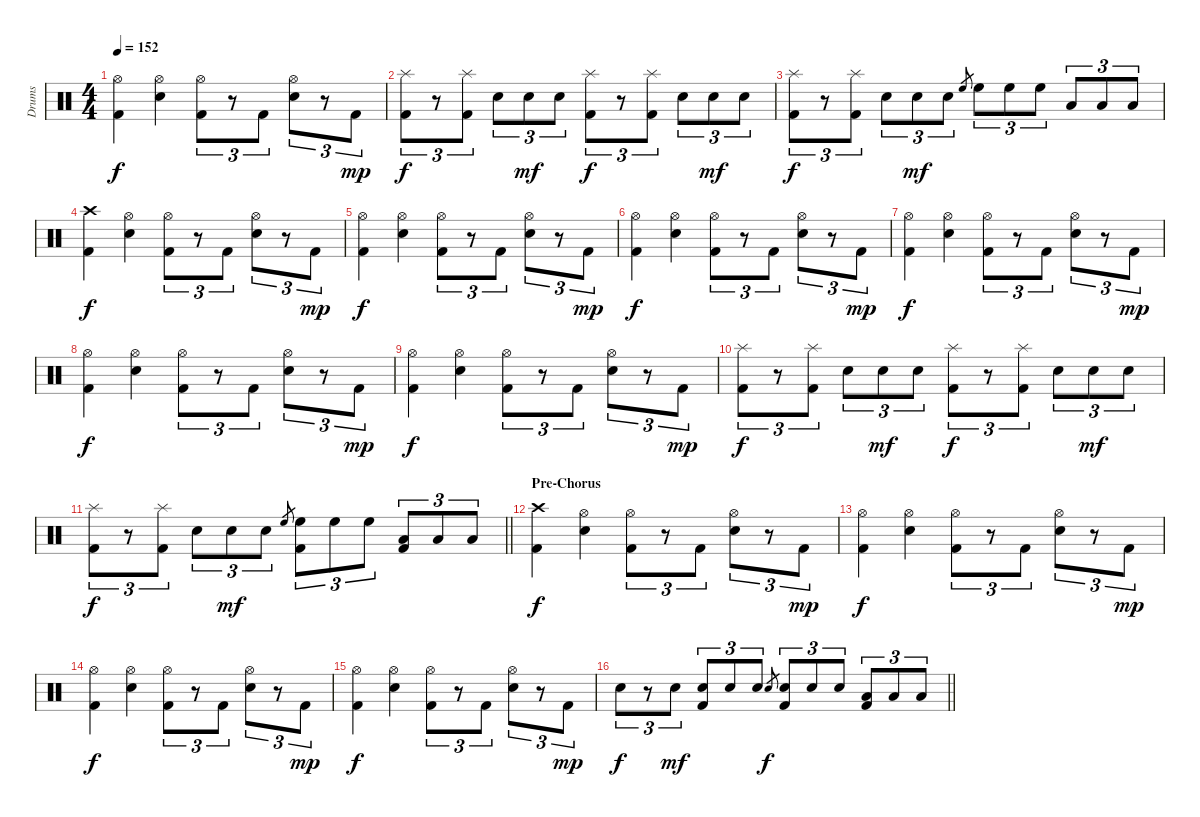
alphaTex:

\track ("Drums" "Drums") {instrument percussion}
\staff {score}
\articulation defaults
\ts (4 4)
\tempo 152
\clef neutral
\ks c
("Hi-Hat (open)" "Kick (hit) 2").4{dy f} ("Hi-Hat (open)" "Snare (hit) 2").4 ("Hi-Hat (open)" "Kick (hit) 2").8{tu (3 2)} r.8{tu (3 2)} "Kick (hit) 2".8{tu (3 2)} ("Hi-Hat (open)" "Snare (hit) 2").8{tu (3 2)} r.8{tu (3 2)} "Kick (hit) 2".8{tu (3 2) dy mp} |
("Splash (hit)" "Kick (hit) 2").8{tu (3 2) dy f} r.8{tu (3 2)} ("Splash (hit)" "Kick (hit) 2").8{tu (3 2)} "Snare (hit) 2".8{tu (3 2)} "Snare (hit) 2".8{tu (3 2) dy mf} "Snare (hit) 2".8{tu (3 2)} ("Splash (hit)" "Kick (hit) 2").8{tu (3 2) dy f} r.8{tu (3 2)} ("Splash (hit)" "Kick (hit) 2").8{tu (3 2)} "Snare (hit) 2".8{tu (3 2)} "Snare (hit) 2".8{tu (3 2) dy mf} "Snare (hit) 2".8{tu (3 2)} |
("Splash (hit)" "Kick (hit) 2").8{tu (3 2) dy f} r.8{tu (3 2)} ("Splash (hit)" "Kick (hit) 2").8{tu (3 2)} "Snare (hit) 2".8{tu (3 2)} "Snare (hit) 2".8{tu (3 2) dy mf} "Snare (hit) 2".8{tu (3 2)} "High Floor Tom (hit)".8{gr} "High Floor Tom (hit)".8{tu (3 2)} "High Floor Tom (hit)".8{tu (3 2)} "High Floor Tom (hit)".8{tu (3 2)} "Low Tom (hit)".8{tu (3 2)} "Low Tom (hit)".8{tu (3 2)} "Low Tom (hit)".8{tu (3 2)} |
("Crash high (hit)" "Kick (hit) 2").4{dy f} ("Hi-Hat (open)" "Snare (hit) 2").4 ("Hi-Hat (open)" "Kick (hit) 2").8{tu (3 2)} r.8{tu (3 2)} "Kick (hit) 2".8{tu (3 2)} ("Hi-Hat (open)" "Snare (hit) 2").8{tu (3 2)} r.8{tu (3 2)} "Kick (hit) 2".8{tu (3 2) dy mp} |
("Hi-Hat (open)" "Kick (hit) 2").4{dy f} ("Hi-Hat (open)" "Snare (hit) 2").4 ("Hi-Hat (open)" "Kick (hit) 2").8{tu (3 2)} r.8{tu (3 2)} "Kick (hit) 2".8{tu (3 2)} ("Hi-Hat (open)" "Snare (hit) 2").8{tu (3 2)} r.8{tu (3 2)} "Kick (hit) 2".8{tu (3 2) dy mp} |
("Hi-Hat (open)" "Kick (hit) 2").4{dy f} ("Hi-Hat (open)" "Snare (hit) 2").4 ("Hi-Hat (open)" "Kick (hit) 2").8{tu (3 2)} r.8{tu (3 2)} "Kick (hit) 2".8{tu (3 2)} ("Hi-Hat (open)" "Snare (hit) 2").8{tu (3 2)} r.8{tu (3 2)} "Kick (hit) 2".8{tu (3 2) dy mp} |
("Hi-Hat (open)" "Kick (hit) 2").4{dy f} ("Hi-Hat (open)" "Snare (hit) 2").4 ("Hi-Hat (open)" "Kick (hit) 2").8{tu (3 2)} r.8{tu (3 2)} "Kick (hit) 2".8{tu (3 2)} ("Hi-Hat (open)" "Snare (hit) 2").8{tu (3 2)} r.8{tu (3 2)} "Kick (hit) 2".8{tu (3 2) dy mp} |
("Hi-Hat (open)" "Kick (hit) 2").4{dy f} ("Hi-Hat (open)" "Snare (hit) 2").4 ("Hi-Hat (open)" "Kick (hit) 2").8{tu (3 2)} r.8{tu (3 2)} "Kick (hit) 2".8{tu (3 2)} ("Hi-Hat (open)" "Snare (hit) 2").8{tu (3 2)} r.8{tu (3 2)} "Kick (hit) 2".8{tu (3 2) dy mp} |
("Hi-Hat (open)" "Kick (hit) 2").4{dy f} ("Hi-Hat (open)" "Snare (hit) 2").4 ("Hi-Hat (open)" "Kick (hit) 2").8{tu (3 2)} r.8{tu (3 2)} "Kick (hit) 2".8{tu (3 2)} ("Hi-Hat (open)" "Snare (hit) 2").8{tu (3 2)} r.8{tu (3 2)} "Kick (hit) 2".8{tu (3 2) dy mp} |
("Splash (hit)" "Kick (hit) 2").8{tu (3 2) dy f} r.8{tu (3 2)} ("Splash (hit)" "Kick (hit) 2").8{tu (3 2)} "Snare (hit) 2".8{tu (3 2)} "Snare (hit) 2".8{tu (3 2) dy mf} "Snare (hit) 2".8{tu (3 2)} ("Splash (hit)" "Kick (hit) 2").8{tu (3 2) dy f} r.8{tu (3 2)} ("Splash (hit)" "Kick (hit) 2").8{tu (3 2)} "Snare (hit) 2".8{tu (3 2)} "Snare (hit) 2".8{tu (3 2) dy mf} "Snare (hit) 2".8{tu (3 2)} |
\barLineRight lightlight
("Splash (hit)" "Kick (hit) 2").8{tu (3 2) dy f} r.8{tu (3 2)} ("Splash (hit)" "Kick (hit) 2").8{tu (3 2)} "Snare (hit) 2".8{tu (3 2)} "Snare (hit) 2".8{tu (3 2) dy mf} "Snare (hit) 2".8{tu (3 2)} "High Floor Tom (hit)".8{gr} ("High Floor Tom (hit)" "Kick (hit) 2").8{tu (3 2)} "High Floor Tom (hit)".8{tu (3 2)} "High Floor Tom (hit)".8{tu (3 2)} ("Low Tom (hit)" "Kick (hit) 2").8{tu (3 2)} "Low Tom (hit)".8{tu (3 2)} "Low Tom (hit)".8{tu (3 2)} |
\section ("" "Pre-Chorus")
("Crash high (hit)" "Kick (hit) 2").4{dy f} ("Hi-Hat (open)" "Snare (hit) 2").4 ("Hi-Hat (open)" "Kick (hit) 2").8{tu (3 2)} r.8{tu (3 2)} "Kick (hit) 2".8{tu (3 2)} ("Hi-Hat (open)" "Snare (hit) 2").8{tu (3 2)} r.8{tu (3 2)} "Kick (hit) 2".8{tu (3 2) dy mp} |
("Hi-Hat (open)" "Kick (hit) 2").4{dy f} ("Hi-Hat (open)" "Snare (hit) 2").4 ("Hi-Hat (open)" "Kick (hit) 2").8{tu (3 2)} r.8{tu (3 2)} "Kick (hit) 2".8{tu (3 2)} ("Hi-Hat (open)" "Snare (hit) 2").8{tu (3 2)} r.8{tu (3 2)} "Kick (hit) 2".8{tu (3 2) dy mp} |
("Hi-Hat (open)" "Kick (hit) 2").4{dy f} ("Hi-Hat (open)" "Snare (hit) 2").4 ("Hi-Hat (open)" "Kick (hit) 2").8{tu (3 2)} r.8{tu (3 2)} "Kick (hit) 2".8{tu (3 2)} ("Hi-Hat (open)" "Snare (hit) 2").8{tu (3 2)} r.8{tu (3 2)} "Kick (hit) 2".8{tu (3 2) dy mp} |
("Hi-Hat (open)" "Kick (hit) 2").4{dy f} ("Hi-Hat (open)" "Snare (hit) 2").4 ("Hi-Hat (open)" "Kick (hit) 2").8{tu (3 2)} r.8{tu (3 2)} "Kick (hit) 2".8{tu (3 2)} ("Hi-Hat (open)" "Snare (hit) 2").8{tu (3 2)} r.8{tu (3 2)} "Kick (hit) 2".8{tu (3 2) dy mp} |
\barLineRight lightlight "Snare (hit) 2".8{tu (3 2) dy f}
r.8{tu (3 2)} "Snare (hit) 2".8{tu (3 2) dy mf} ("Snare (hit) 2" "Kick (hit) 2").8{tu (3 2)} "Snare (hit) 2".8{tu (3 2)} "Snare (hit) 2".8{tu (3 2)} "Snare (hit) 2".8{gr dy f} ("Snare (hit) 2" "Kick (hit) 2").8{tu (3 2)} "Snare (hit) 2".8{tu (3 2)} "Snare (hit) 2".8{tu (3 2)} ("Low Tom (hit)" "Kick (hit) 2").8{tu (3 2)} "Low Tom (hit)".8{tu (3 2)} "Low Tom (hit)".8{tu (3 2)}
